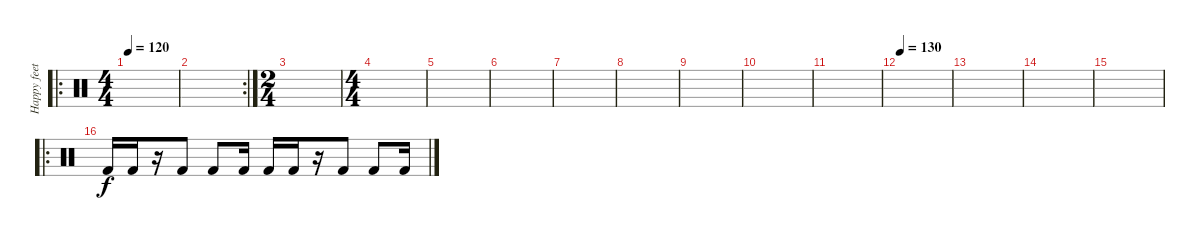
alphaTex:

\track ("Happy feet" "Happy feet") {instrument percussion}
\staff {score}
\articulation defaults
\ro
\ts (4 4)
\tempo 120
\clef neutral
\ks c
|
\rc 2
|
\ts (2 4)
|
\ts (4 4)
|
|
|
|
|
|
|
|
\tempo 130
|
|
|
|
\ro "Kick (hit) 2".16 "Kick (hit) 2".16
r.16 "Kick (hit) 2".8 "Kick (hit) 2".8 "Kick (hit) 2".16 "Kick (hit) 2".16 "Kick (hit) 2".16 r.16 "Kick (hit) 2".8 "Kick (hit) 2".8 "Kick (hit) 2".16
